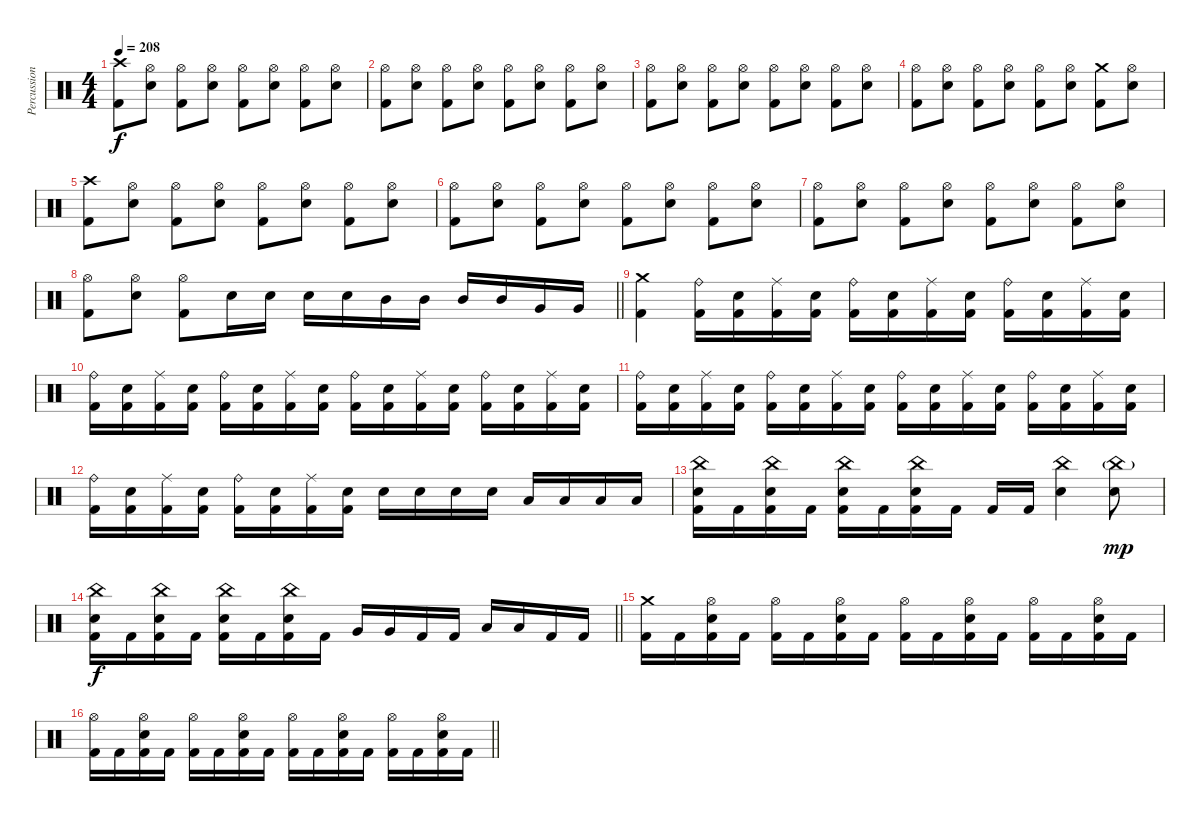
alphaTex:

\track ("Percussion" "Percussion") {instrument percussion}
\staff {score}
\articulation defaults
\ts (4 4)
\tempo 208
\clef neutral
\ks c
("Crash high (hit)" "Kick (hit) 2").8{dy f} ("Hi-Hat (open)" "Snare (hit) 2").8 ("Hi-Hat (open)" "Kick (hit) 2").8 ("Hi-Hat (open)" "Snare (hit) 2").8 ("Hi-Hat (open)" "Kick (hit) 2").8 ("Hi-Hat (open)" "Snare (hit) 2").8 ("Hi-Hat (open)" "Kick (hit) 2").8 ("Hi-Hat (open)" "Snare (hit) 2").8 |
("Hi-Hat (open)" "Kick (hit) 2").8 ("Hi-Hat (open)" "Snare (hit) 2").8 ("Hi-Hat (open)" "Kick (hit) 2").8 ("Hi-Hat (open)" "Snare (hit) 2").8 ("Hi-Hat (open)" "Kick (hit) 2").8 ("Hi-Hat (open)" "Snare (hit) 2").8 ("Hi-Hat (open)" "Kick (hit) 2").8 ("Hi-Hat (open)" "Snare (hit) 2").8 |
("Hi-Hat (open)" "Kick (hit) 2").8 ("Hi-Hat (open)" "Snare (hit) 2").8 ("Hi-Hat (open)" "Kick (hit) 2").8 ("Hi-Hat (open)" "Snare (hit) 2").8 ("Hi-Hat (open)" "Kick (hit) 2").8 ("Hi-Hat (open)" "Snare (hit) 2").8 ("Hi-Hat (open)" "Kick (hit) 2").8 ("Hi-Hat (open)" "Snare (hit) 2").8 |
("Hi-Hat (open)" "Kick (hit) 2").8 ("Hi-Hat (open)" "Snare (hit) 2").8 ("Hi-Hat (open)" "Kick (hit) 2").8 ("Hi-Hat (open)" "Snare (hit) 2").8 ("Hi-Hat (open)" "Kick (hit) 2").8 ("Hi-Hat (open)" "Snare (hit) 2").8 ("Crash medium (hit)" "Kick (hit) 2").8 ("Hi-Hat (open)" "Snare (hit) 2").8 |
("Crash high (hit)" "Kick (hit) 2").8 ("Hi-Hat (open)" "Snare (hit) 2").8 ("Hi-Hat (open)" "Kick (hit) 2").8 ("Hi-Hat (open)" "Snare (hit) 2").8 ("Hi-Hat (open)" "Kick (hit) 2").8 ("Hi-Hat (open)" "Snare (hit) 2").8 ("Hi-Hat (open)" "Kick (hit) 2").8 ("Hi-Hat (open)" "Snare (hit) 2").8 |
("Hi-Hat (open)" "Kick (hit) 2").8 ("Hi-Hat (open)" "Snare (hit) 2").8 ("Hi-Hat (open)" "Kick (hit) 2").8 ("Hi-Hat (open)" "Snare (hit) 2").8 ("Hi-Hat (open)" "Kick (hit) 2").8 ("Hi-Hat (open)" "Snare (hit) 2").8 ("Hi-Hat (open)" "Kick (hit) 2").8 ("Hi-Hat (open)" "Snare (hit) 2").8 |
("Hi-Hat (open)" "Kick (hit) 2").8 ("Hi-Hat (open)" "Snare (hit) 2").8 ("Hi-Hat (open)" "Kick (hit) 2").8 ("Hi-Hat (open)" "Snare (hit) 2").8 ("Hi-Hat (open)" "Kick (hit) 2").8 ("Hi-Hat (open)" "Snare (hit) 2").8 ("Hi-Hat (open)" "Kick (hit) 2").8 ("Hi-Hat (open)" "Snare (hit) 2").8 |
\barLineRight lightlight
("Hi-Hat (open)" "Kick (hit) 2").8 ("Hi-Hat (open)" "Snare (hit) 2").8 ("Hi-Hat (open)" "Kick (hit) 2").8 "Snare (hit) 2".16 "Snare (hit) 2".16 "Snare (hit) 2".16 "Snare (hit) 2".16 "Mid Tom (hit)".16 "Mid Tom (hit)".16 "Mid Tom (hit)".16 "Mid Tom (hit)".16 "Very Low Tom (hit)".16 "Very Low Tom (hit)".16 |
("Crash medium (hit)" "Kick (hit) 2").4 ("Ride (bell)" "Kick (hit) 2").16 ("Snare (hit) 2" "Kick (hit) 2").16 ("Ride (middle)" "Kick (hit) 2").16 ("Snare (hit) 2" "Kick (hit) 2").16 ("Ride (bell)" "Kick (hit) 2").16 ("Snare (hit) 2" "Kick (hit) 2").16 ("Ride (middle)" "Kick (hit) 2").16 ("Snare (hit) 2" "Kick (hit) 2").16 ("Ride (bell)" "Kick (hit) 2").16 ("Snare (hit) 2" "Kick (hit) 2").16 ("Ride (middle)" "Kick (hit) 2").16 ("Snare (hit) 2" "Kick (hit) 2").16 |
("Ride (bell)" "Kick (hit) 2").16 ("Snare (hit) 2" "Kick (hit) 2").16 ("Ride (middle)" "Kick (hit) 2").16 ("Snare (hit) 2" "Kick (hit) 2").16 ("Ride (bell)" "Kick (hit) 2").16 ("Snare (hit) 2" "Kick (hit) 2").16 ("Ride (middle)" "Kick (hit) 2").16 ("Snare (hit) 2" "Kick (hit) 2").16 ("Ride (bell)" "Kick (hit) 2").16 ("Snare (hit) 2" "Kick (hit) 2").16 ("Ride (middle)" "Kick (hit) 2").16 ("Snare (hit) 2" "Kick (hit) 2").16 ("Ride (bell)" "Kick (hit) 2").16 ("Snare (hit) 2" "Kick (hit) 2").16 ("Ride (middle)" "Kick (hit) 2").16 ("Snare (hit) 2" "Kick (hit) 2").16 |
("Ride (bell)" "Kick (hit) 2").16 ("Snare (hit) 2" "Kick (hit) 2").16 ("Ride (middle)" "Kick (hit) 2").16 ("Snare (hit) 2" "Kick (hit) 2").16 ("Ride (bell)" "Kick (hit) 2").16 ("Snare (hit) 2" "Kick (hit) 2").16 ("Ride (middle)" "Kick (hit) 2").16 ("Snare (hit) 2" "Kick (hit) 2").16 ("Ride (bell)" "Kick (hit) 2").16 ("Snare (hit) 2" "Kick (hit) 2").16 ("Ride (middle)" "Kick (hit) 2").16 ("Snare (hit) 2" "Kick (hit) 2").16 ("Ride (bell)" "Kick (hit) 2").16 ("Snare (hit) 2" "Kick (hit) 2").16 ("Ride (middle)" "Kick (hit) 2").16 ("Snare (hit) 2" "Kick (hit) 2").16 |
("Ride (bell)" "Kick (hit) 2").16 ("Snare (hit) 2" "Kick (hit) 2").16 ("Ride (middle)" "Kick (hit) 2").16 ("Snare (hit) 2" "Kick (hit) 2").16 ("Ride (bell)" "Kick (hit) 2").16 ("Snare (hit) 2" "Kick (hit) 2").16 ("Ride (middle)" "Kick (hit) 2").16 ("Snare (hit) 2" "Kick (hit) 2").16 "Snare (hit) 2".16 "Snare (hit) 2".16 "Snare (hit) 2".16 "Snare (hit) 2".16 "Low Tom (hit)".16 "Low Tom (hit)".16 "Low Tom (hit)".16 "Low Tom (hit)".16 |
("China (hit)" "Snare (hit) 2" "Kick (hit) 2").16 "Kick (hit) 2".16 ("China (hit)" "Snare (hit) 2" "Kick (hit) 2").16 "Kick (hit) 2".16 ("China (hit)" "Snare (hit) 2" "Kick (hit) 2").16 "Kick (hit) 2".16 ("China (hit)" "Snare (hit) 2" "Kick (hit) 2").16 "Kick (hit) 2".16 "Kick (hit) 2".16 "Kick (hit) 2".16 ("China (hit)" "Snare (hit) 2").4 ("China (hit)"{g} "Snare (hit) 2").8{dy mp} |
\barLineRight lightlight
("China (hit)" "Snare (hit) 2" "Kick (hit) 2").16{dy f} "Kick (hit) 2".16 ("China (hit)" "Snare (hit) 2" "Kick (hit) 2").16 "Kick (hit) 2".16 ("China (hit)" "Snare (hit) 2" "Kick (hit) 2").16 "Kick (hit) 2".16 ("China (hit)" "Snare (hit) 2" "Kick (hit) 2").16 "Kick (hit) 2".16 "Very Low Tom (hit)".16 "Very Low Tom (hit)".16 "Kick (hit) 2".16 "Kick (hit) 2".16 "Low Floor Tom (hit)".16 "Low Floor Tom (hit)".16 "Kick (hit) 2".16 "Kick (hit) 2".16 |
("Crash medium (hit)" "Kick (hit) 2").16 "Kick (hit) 2".16 ("Hi-Hat (open)" "Snare (hit) 2" "Kick (hit) 2").16 "Kick (hit) 2".16 ("Hi-Hat (open)" "Kick (hit) 2").16 "Kick (hit) 2".16 ("Hi-Hat (open)" "Snare (hit) 2" "Kick (hit) 2").16 "Kick (hit) 2".16 ("Hi-Hat (open)" "Kick (hit) 2").16 "Kick (hit) 2".16 ("Hi-Hat (open)" "Snare (hit) 2" "Kick (hit) 2").16 "Kick (hit) 2".16 ("Hi-Hat (open)" "Kick (hit) 2").16 "Kick (hit) 2".16 ("Hi-Hat (open)" "Snare (hit) 2" "Kick (hit) 2").16 "Kick (hit) 2".16 |
\barLineRight lightlight
("Hi-Hat (open)" "Kick (hit) 2").16 "Kick (hit) 2".16 ("Hi-Hat (open)" "Snare (hit) 2" "Kick (hit) 2").16 "Kick (hit) 2".16 ("Hi-Hat (open)" "Kick (hit) 2").16 "Kick (hit) 2".16 ("Hi-Hat (open)" "Snare (hit) 2" "Kick (hit) 2").16 "Kick (hit) 2".16 ("Hi-Hat (open)" "Kick (hit) 2").16 "Kick (hit) 2".16 ("Hi-Hat (open)" "Snare (hit) 2" "Kick (hit) 2").16 "Kick (hit) 2".16 ("Hi-Hat (open)" "Kick (hit) 2").16 "Kick (hit) 2".16 ("Hi-Hat (open)" "Snare (hit) 2" "Kick (hit) 2").16 "Kick (hit) 2".16
